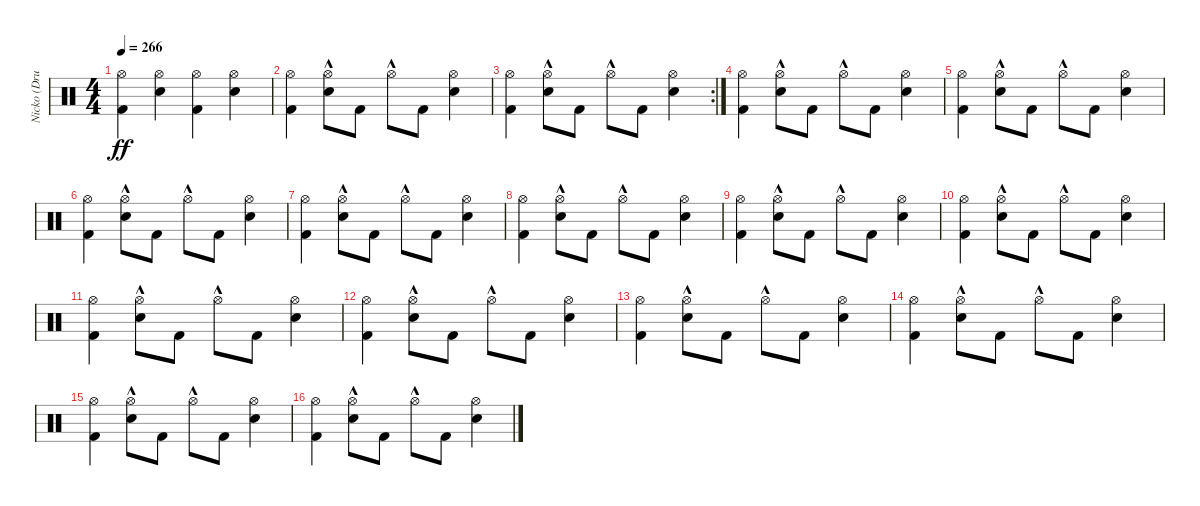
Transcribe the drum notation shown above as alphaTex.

\track ("Nicko (Drums)" "Nicko (Dru") {instrument percussion}
\staff {score}
\articulation defaults
\ts (4 4)
\tempo 266
\clef neutral
\ks c
("Kick (hit) 2" "Hi-Hat (open)").4{dy ff} ("Snare (hit) 2" "Hi-Hat (open)").4 ("Kick (hit) 2" "Hi-Hat (open)").4 ("Snare (hit) 2" "Hi-Hat (open)").4 |
("Kick (hit) 2" "Hi-Hat (open)").4 ("Snare (hit) 2" "Hi-Hat (open)"{hac}).8 "Kick (hit) 2".8 "Hi-Hat (open)"{hac}.8 "Kick (hit) 2".8 ("Snare (hit) 2" "Hi-Hat (open)").4 |
\rc 2
("Kick (hit) 2" "Hi-Hat (open)").4 ("Snare (hit) 2" "Hi-Hat (open)"{hac}).8 "Kick (hit) 2".8 "Hi-Hat (open)"{hac}.8 "Kick (hit) 2".8 ("Snare (hit) 2" "Hi-Hat (open)").4 |
("Kick (hit) 2" "Hi-Hat (open)").4 ("Snare (hit) 2" "Hi-Hat (open)"{hac}).8 "Kick (hit) 2".8 "Hi-Hat (open)"{hac}.8 "Kick (hit) 2".8 ("Snare (hit) 2" "Hi-Hat (open)").4 |
("Kick (hit) 2" "Hi-Hat (open)").4 ("Snare (hit) 2" "Hi-Hat (open)"{hac}).8 "Kick (hit) 2".8 "Hi-Hat (open)"{hac}.8 "Kick (hit) 2".8 ("Snare (hit) 2" "Hi-Hat (open)").4 |
("Kick (hit) 2" "Hi-Hat (open)").4 ("Snare (hit) 2" "Hi-Hat (open)"{hac}).8 "Kick (hit) 2".8 "Hi-Hat (open)"{hac}.8 "Kick (hit) 2".8 ("Snare (hit) 2" "Hi-Hat (open)").4 |
("Kick (hit) 2" "Hi-Hat (open)").4 ("Snare (hit) 2" "Hi-Hat (open)"{hac}).8 "Kick (hit) 2".8 "Hi-Hat (open)"{hac}.8 "Kick (hit) 2".8 ("Snare (hit) 2" "Hi-Hat (open)").4 |
("Kick (hit) 2" "Hi-Hat (open)").4 ("Snare (hit) 2" "Hi-Hat (open)"{hac}).8 "Kick (hit) 2".8 "Hi-Hat (open)"{hac}.8 "Kick (hit) 2".8 ("Snare (hit) 2" "Hi-Hat (open)").4 |
("Kick (hit) 2" "Hi-Hat (open)").4 ("Snare (hit) 2" "Hi-Hat (open)"{hac}).8 "Kick (hit) 2".8 "Hi-Hat (open)"{hac}.8 "Kick (hit) 2".8 ("Snare (hit) 2" "Hi-Hat (open)").4 |
("Kick (hit) 2" "Hi-Hat (open)").4 ("Snare (hit) 2" "Hi-Hat (open)"{hac}).8 "Kick (hit) 2".8 "Hi-Hat (open)"{hac}.8 "Kick (hit) 2".8 ("Snare (hit) 2" "Hi-Hat (open)").4 |
("Kick (hit) 2" "Hi-Hat (open)").4 ("Snare (hit) 2" "Hi-Hat (open)"{hac}).8 "Kick (hit) 2".8 "Hi-Hat (open)"{hac}.8 "Kick (hit) 2".8 ("Snare (hit) 2" "Hi-Hat (open)").4 |
("Kick (hit) 2" "Hi-Hat (open)").4 ("Snare (hit) 2" "Hi-Hat (open)"{hac}).8 "Kick (hit) 2".8 "Hi-Hat (open)"{hac}.8 "Kick (hit) 2".8 ("Snare (hit) 2" "Hi-Hat (open)").4 |
("Kick (hit) 2" "Hi-Hat (open)").4 ("Snare (hit) 2" "Hi-Hat (open)"{hac}).8 "Kick (hit) 2".8 "Hi-Hat (open)"{hac}.8 "Kick (hit) 2".8 ("Snare (hit) 2" "Hi-Hat (open)").4 |
("Kick (hit) 2" "Hi-Hat (open)").4 ("Snare (hit) 2" "Hi-Hat (open)"{hac}).8 "Kick (hit) 2".8 "Hi-Hat (open)"{hac}.8 "Kick (hit) 2".8 ("Snare (hit) 2" "Hi-Hat (open)").4 |
("Kick (hit) 2" "Hi-Hat (open)").4 ("Snare (hit) 2" "Hi-Hat (open)"{hac}).8 "Kick (hit) 2".8 "Hi-Hat (open)"{hac}.8 "Kick (hit) 2".8 ("Snare (hit) 2" "Hi-Hat (open)").4 |
("Kick (hit) 2" "Hi-Hat (open)").4 ("Snare (hit) 2" "Hi-Hat (open)"{hac}).8 "Kick (hit) 2".8 "Hi-Hat (open)"{hac}.8 "Kick (hit) 2".8 ("Snare (hit) 2" "Hi-Hat (open)").4
